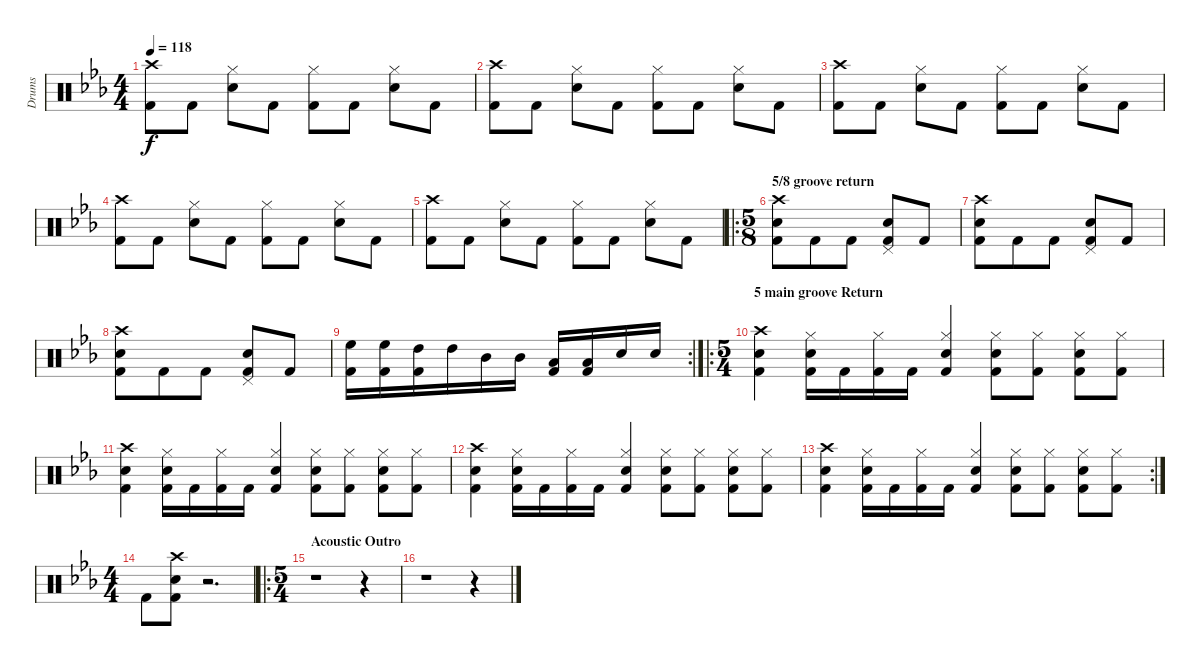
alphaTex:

\track ("Drums" "Drums") {instrument percussion}
\staff {score}
\articulation defaults
\ts (4 4)
\tempo 118
\clef neutral
\ks eb
("Crash high (hit)" "Kick (hit) 2").8{dy f} "Kick (hit) 2".8 ("Hi-Hat (closed)" "Electric Snare (hit)").8 "Kick (hit) 2".8 ("Hi-Hat (closed)" "Kick (hit) 2").8 "Kick (hit) 2".8 ("Hi-Hat (closed)" "Electric Snare (hit)").8 "Kick (hit) 2".8 |
("Crash high (hit)" "Kick (hit) 2").8 "Kick (hit) 2".8 ("Hi-Hat (closed)" "Electric Snare (hit)").8 "Kick (hit) 2".8 ("Hi-Hat (closed)" "Kick (hit) 2").8 "Kick (hit) 2".8 ("Hi-Hat (closed)" "Electric Snare (hit)").8 "Kick (hit) 2".8 |
("Crash high (hit)" "Kick (hit) 2").8 "Kick (hit) 2".8 ("Hi-Hat (closed)" "Electric Snare (hit)").8 "Kick (hit) 2".8 ("Hi-Hat (closed)" "Kick (hit) 2").8 "Kick (hit) 2".8 ("Hi-Hat (closed)" "Electric Snare (hit)").8 "Kick (hit) 2".8 |
("Crash high (hit)" "Kick (hit) 2").8 "Kick (hit) 2".8 ("Hi-Hat (closed)" "Electric Snare (hit)").8 "Kick (hit) 2".8 ("Hi-Hat (closed)" "Kick (hit) 2").8 "Kick (hit) 2".8 ("Hi-Hat (closed)" "Electric Snare (hit)").8 "Kick (hit) 2".8 |
("Crash high (hit)" "Kick (hit) 2").8 "Kick (hit) 2".8 ("Hi-Hat (closed)" "Electric Snare (hit)").8 "Kick (hit) 2".8 ("Hi-Hat (closed)" "Kick (hit) 2").8 "Kick (hit) 2".8 ("Hi-Hat (closed)" "Electric Snare (hit)").8 "Kick (hit) 2".8 |
\ro
\ts (5 8)
\section ("" "5/8 groove return")
("Crash high (hit)" "Electric Snare (hit)" "Kick (hit) 2").8 "Kick (hit) 2".8 "Kick (hit) 2".8 ("Pedal Hi-Hat (hit)" "Electric Snare (hit)" "Kick (hit) 2").8 "Kick (hit) 2".8 |
("Crash high (hit)" "Electric Snare (hit)" "Kick (hit) 2").8 "Kick (hit) 2".8 "Kick (hit) 2".8 ("Pedal Hi-Hat (hit)" "Electric Snare (hit)" "Kick (hit) 2").8 "Kick (hit) 2".8 |
("Crash high (hit)" "Electric Snare (hit)" "Kick (hit) 2").8 "Kick (hit) 2".8 "Kick (hit) 2".8 ("Pedal Hi-Hat (hit)" "Electric Snare (hit)" "Kick (hit) 2").8 "Kick (hit) 2".8 |
\rc 2
("High Floor Tom (hit)" "Kick (hit) 2").16 ("High Floor Tom (hit)" "Kick (hit) 2").16 ("High Tom (hit)" "Kick (hit) 2").16 "High Tom (hit)".16 "Mid Tom (hit)".16 "Mid Tom (hit)".16 ("Low Tom (hit)" "Kick (hit) 2").16 ("Low Tom (hit)" "Kick (hit) 2").16 "Electric Snare (hit)".16 "Electric Snare (hit)".16 |
\ro
\ts (5 4)
\section ("" "5 main groove Return")
("Crash high (hit)" "Electric Snare (hit)" "Kick (hit) 2").4 ("Hi-Hat (closed)" "Electric Snare (hit)" "Kick (hit) 2").16 "Kick (hit) 2".16 ("Hi-Hat (closed)" "Kick (hit) 2").16 "Kick (hit) 2".16 ("Hi-Hat (closed)" "Electric Snare (hit)" "Kick (hit) 2").4 ("Hi-Hat (closed)" "Electric Snare (hit)" "Kick (hit) 2").8 ("Hi-Hat (closed)" "Kick (hit) 2").8 ("Hi-Hat (closed)" "Electric Snare (hit)" "Kick (hit) 2").8 ("Hi-Hat (closed)" "Kick (hit) 2").8 |
("Crash high (hit)" "Electric Snare (hit)" "Kick (hit) 2").4 ("Hi-Hat (closed)" "Electric Snare (hit)" "Kick (hit) 2").16 "Kick (hit) 2".16 ("Hi-Hat (closed)" "Kick (hit) 2").16 "Kick (hit) 2".16 ("Hi-Hat (closed)" "Electric Snare (hit)" "Kick (hit) 2").4 ("Hi-Hat (closed)" "Electric Snare (hit)" "Kick (hit) 2").8 ("Hi-Hat (closed)" "Kick (hit) 2").8 ("Hi-Hat (closed)" "Electric Snare (hit)" "Kick (hit) 2").8 ("Hi-Hat (closed)" "Kick (hit) 2").8 |
("Crash high (hit)" "Electric Snare (hit)" "Kick (hit) 2").4 ("Hi-Hat (closed)" "Electric Snare (hit)" "Kick (hit) 2").16 "Kick (hit) 2".16 ("Hi-Hat (closed)" "Kick (hit) 2").16 "Kick (hit) 2".16 ("Hi-Hat (closed)" "Electric Snare (hit)" "Kick (hit) 2").4 ("Hi-Hat (closed)" "Electric Snare (hit)" "Kick (hit) 2").8 ("Hi-Hat (closed)" "Kick (hit) 2").8 ("Hi-Hat (closed)" "Electric Snare (hit)" "Kick (hit) 2").8 ("Hi-Hat (closed)" "Kick (hit) 2").8 |
\rc 2
("Crash high (hit)" "Electric Snare (hit)" "Kick (hit) 2").4 ("Hi-Hat (closed)" "Electric Snare (hit)" "Kick (hit) 2").16 "Kick (hit) 2".16 ("Hi-Hat (closed)" "Kick (hit) 2").16 "Kick (hit) 2".16 ("Hi-Hat (closed)" "Electric Snare (hit)" "Kick (hit) 2").4 ("Hi-Hat (closed)" "Electric Snare (hit)" "Kick (hit) 2").8 ("Hi-Hat (closed)" "Kick (hit) 2").8 ("Hi-Hat (closed)" "Electric Snare (hit)" "Kick (hit) 2").8 ("Hi-Hat (closed)" "Kick (hit) 2").8 |
\ts (4 4)
"Kick (hit) 2".8 ("Crash high (hit)" "Electric Snare (hit)" "Kick (hit) 2").8 r.2{d} |
\ro
\ts (5 4)
\section ("" "Acoustic Outro")
r.1 r.4 |
r.1 r.4
